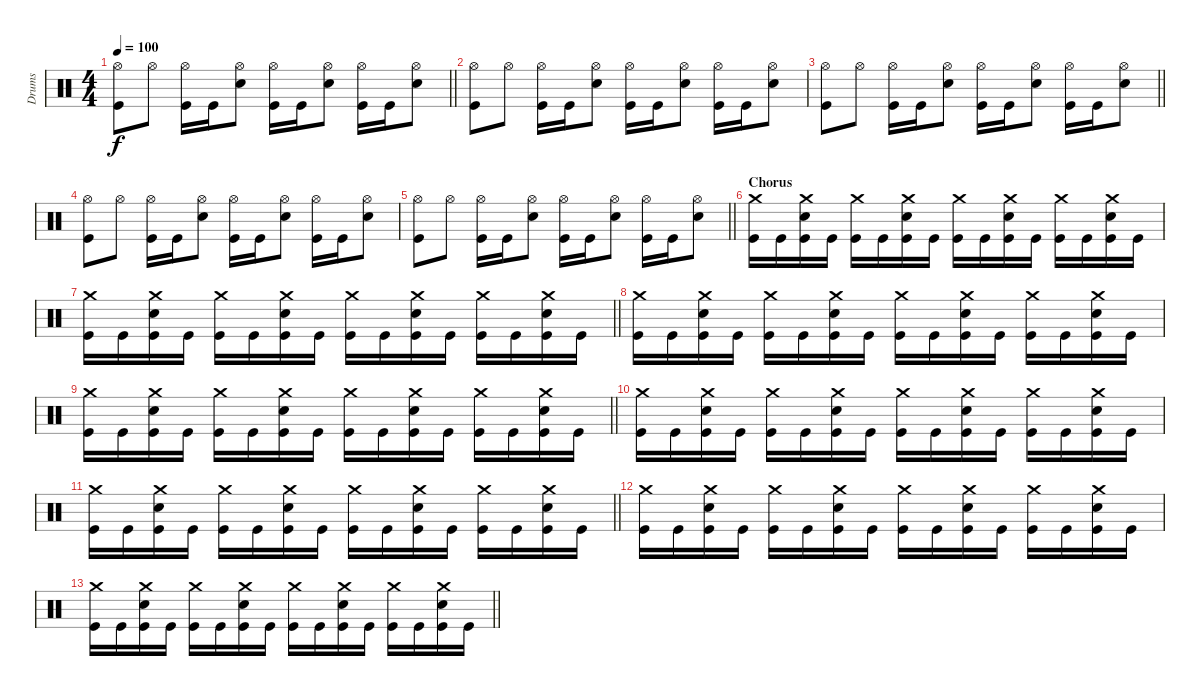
\track ("Drums" "Drums") {instrument percussion}
\staff {score}
\articulation defaults
\ts (4 4)
\tempo 100
\clef neutral
\barLineRight lightlight
\ks c
("Hi-Hat (open)" "Kick (hit)").8{dy f} "Hi-Hat (open)".8 ("Hi-Hat (open)" "Kick (hit)").16 "Kick (hit)".16 ("Hi-Hat (open)" "Snare (hit) 2").8 ("Hi-Hat (open)" "Kick (hit)").16 "Kick (hit)".16 ("Hi-Hat (open)" "Snare (hit) 2").8 ("Hi-Hat (open)" "Kick (hit)").16 "Kick (hit)".16 ("Hi-Hat (open)" "Snare (hit) 2").8 |
("Hi-Hat (open)" "Kick (hit)").8 "Hi-Hat (open)".8 ("Hi-Hat (open)" "Kick (hit)").16 "Kick (hit)".16 ("Hi-Hat (open)" "Snare (hit) 2").8 ("Hi-Hat (open)" "Kick (hit)").16 "Kick (hit)".16 ("Hi-Hat (open)" "Snare (hit) 2").8 ("Hi-Hat (open)" "Kick (hit)").16 "Kick (hit)".16 ("Hi-Hat (open)" "Snare (hit) 2").8 |
\barLineRight lightlight
("Hi-Hat (open)" "Kick (hit)").8 "Hi-Hat (open)".8 ("Hi-Hat (open)" "Kick (hit)").16 "Kick (hit)".16 ("Hi-Hat (open)" "Snare (hit) 2").8 ("Hi-Hat (open)" "Kick (hit)").16 "Kick (hit)".16 ("Hi-Hat (open)" "Snare (hit) 2").8 ("Hi-Hat (open)" "Kick (hit)").16 "Kick (hit)".16 ("Hi-Hat (open)" "Snare (hit) 2").8 |
("Hi-Hat (open)" "Kick (hit)").8 "Hi-Hat (open)".8 ("Hi-Hat (open)" "Kick (hit)").16 "Kick (hit)".16 ("Hi-Hat (open)" "Snare (hit) 2").8 ("Hi-Hat (open)" "Kick (hit)").16 "Kick (hit)".16 ("Hi-Hat (open)" "Snare (hit) 2").8 ("Hi-Hat (open)" "Kick (hit)").16 "Kick (hit)".16 ("Hi-Hat (open)" "Snare (hit) 2").8 |
\barLineRight lightlight
("Hi-Hat (open)" "Kick (hit)").8 "Hi-Hat (open)".8 ("Hi-Hat (open)" "Kick (hit)").16 "Kick (hit)".16 ("Hi-Hat (open)" "Snare (hit) 2").8 ("Hi-Hat (open)" "Kick (hit)").16 "Kick (hit)".16 ("Hi-Hat (open)" "Snare (hit) 2").8 ("Hi-Hat (open)" "Kick (hit)").16 "Kick (hit)".16 ("Hi-Hat (open)" "Snare (hit) 2").8 |
\section ("" "Chorus")
("Crash medium (hit)" "Kick (hit)").16 "Kick (hit)".16 ("Crash medium (hit)" "Snare (hit) 2" "Kick (hit)").16 "Kick (hit)".16 ("Crash medium (hit)" "Kick (hit)").16 "Kick (hit)".16 ("Crash medium (hit)" "Snare (hit) 2" "Kick (hit)").16 "Kick (hit)".16 ("Crash medium (hit)" "Kick (hit)").16 "Kick (hit)".16 ("Crash medium (hit)" "Snare (hit) 2" "Kick (hit)").16 "Kick (hit)".16 ("Crash medium (hit)" "Kick (hit)").16 "Kick (hit)".16 ("Crash medium (hit)" "Snare (hit) 2" "Kick (hit)").16 "Kick (hit)".16 |
\barLineRight lightlight
("Crash medium (hit)" "Kick (hit)").16 "Kick (hit)".16 ("Crash medium (hit)" "Snare (hit) 2" "Kick (hit)").16 "Kick (hit)".16 ("Crash medium (hit)" "Kick (hit)").16 "Kick (hit)".16 ("Crash medium (hit)" "Snare (hit) 2" "Kick (hit)").16 "Kick (hit)".16 ("Crash medium (hit)" "Kick (hit)").16 "Kick (hit)".16 ("Crash medium (hit)" "Snare (hit) 2" "Kick (hit)").16 "Kick (hit)".16 ("Crash medium (hit)" "Kick (hit)").16 "Kick (hit)".16 ("Crash medium (hit)" "Snare (hit) 2" "Kick (hit)").16 "Kick (hit)".16 |
("Crash medium (hit)" "Kick (hit)").16 "Kick (hit)".16 ("Crash medium (hit)" "Snare (hit) 2" "Kick (hit)").16 "Kick (hit)".16 ("Crash medium (hit)" "Kick (hit)").16 "Kick (hit)".16 ("Crash medium (hit)" "Snare (hit) 2" "Kick (hit)").16 "Kick (hit)".16 ("Crash medium (hit)" "Kick (hit)").16 "Kick (hit)".16 ("Crash medium (hit)" "Snare (hit) 2" "Kick (hit)").16 "Kick (hit)".16 ("Crash medium (hit)" "Kick (hit)").16 "Kick (hit)".16 ("Crash medium (hit)" "Snare (hit) 2" "Kick (hit)").16 "Kick (hit)".16 |
\barLineRight lightlight
("Crash medium (hit)" "Kick (hit)").16 "Kick (hit)".16 ("Crash medium (hit)" "Snare (hit) 2" "Kick (hit)").16 "Kick (hit)".16 ("Crash medium (hit)" "Kick (hit)").16 "Kick (hit)".16 ("Crash medium (hit)" "Snare (hit) 2" "Kick (hit)").16 "Kick (hit)".16 ("Crash medium (hit)" "Kick (hit)").16 "Kick (hit)".16 ("Crash medium (hit)" "Snare (hit) 2" "Kick (hit)").16 "Kick (hit)".16 ("Crash medium (hit)" "Kick (hit)").16 "Kick (hit)".16 ("Crash medium (hit)" "Snare (hit) 2" "Kick (hit)").16 "Kick (hit)".16 |
("Crash medium (hit)" "Kick (hit)").16 "Kick (hit)".16 ("Crash medium (hit)" "Snare (hit) 2" "Kick (hit)").16 "Kick (hit)".16 ("Crash medium (hit)" "Kick (hit)").16 "Kick (hit)".16 ("Crash medium (hit)" "Snare (hit) 2" "Kick (hit)").16 "Kick (hit)".16 ("Crash medium (hit)" "Kick (hit)").16 "Kick (hit)".16 ("Crash medium (hit)" "Snare (hit) 2" "Kick (hit)").16 "Kick (hit)".16 ("Crash medium (hit)" "Kick (hit)").16 "Kick (hit)".16 ("Crash medium (hit)" "Snare (hit) 2" "Kick (hit)").16 "Kick (hit)".16 |
\barLineRight lightlight
("Crash medium (hit)" "Kick (hit)").16 "Kick (hit)".16 ("Crash medium (hit)" "Snare (hit) 2" "Kick (hit)").16 "Kick (hit)".16 ("Crash medium (hit)" "Kick (hit)").16 "Kick (hit)".16 ("Crash medium (hit)" "Snare (hit) 2" "Kick (hit)").16 "Kick (hit)".16 ("Crash medium (hit)" "Kick (hit)").16 "Kick (hit)".16 ("Crash medium (hit)" "Snare (hit) 2" "Kick (hit)").16 "Kick (hit)".16 ("Crash medium (hit)" "Kick (hit)").16 "Kick (hit)".16 ("Crash medium (hit)" "Snare (hit) 2" "Kick (hit)").16 "Kick (hit)".16 |
("Crash medium (hit)" "Kick (hit)").16 "Kick (hit)".16 ("Crash medium (hit)" "Snare (hit) 2" "Kick (hit)").16 "Kick (hit)".16 ("Crash medium (hit)" "Kick (hit)").16 "Kick (hit)".16 ("Crash medium (hit)" "Snare (hit) 2" "Kick (hit)").16 "Kick (hit)".16 ("Crash medium (hit)" "Kick (hit)").16 "Kick (hit)".16 ("Crash medium (hit)" "Snare (hit) 2" "Kick (hit)").16 "Kick (hit)".16 ("Crash medium (hit)" "Kick (hit)").16 "Kick (hit)".16 ("Crash medium (hit)" "Snare (hit) 2" "Kick (hit)").16 "Kick (hit)".16 |
\barLineRight lightlight
("Crash medium (hit)" "Kick (hit)").16 "Kick (hit)".16 ("Crash medium (hit)" "Snare (hit) 2" "Kick (hit)").16 "Kick (hit)".16 ("Crash medium (hit)" "Kick (hit)").16 "Kick (hit)".16 ("Crash medium (hit)" "Snare (hit) 2" "Kick (hit)").16 "Kick (hit)".16 ("Crash medium (hit)" "Kick (hit)").16 "Kick (hit)".16 ("Crash medium (hit)" "Snare (hit) 2" "Kick (hit)").16 "Kick (hit)".16 ("Crash medium (hit)" "Kick (hit)").16 "Kick (hit)".16 ("Crash medium (hit)" "Snare (hit) 2" "Kick (hit)").16 "Kick (hit)".16
